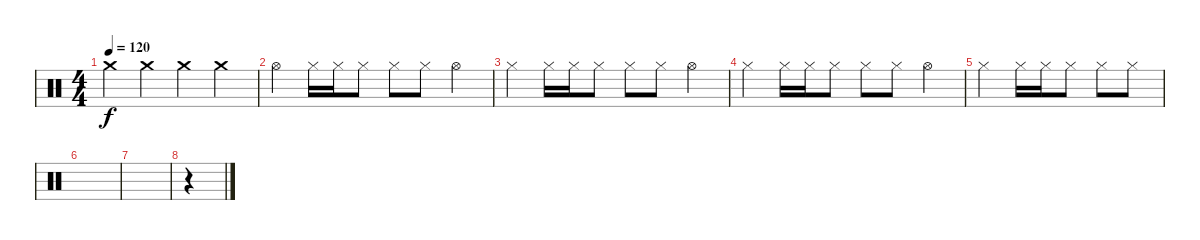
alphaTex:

\track "" {instrument percussion}
\staff {score}
\articulation defaults
\ts (4 4)
\tempo 120
\clef neutral
\ks c "Crash medium (hit)".4{dy f} "Crash medium (hit)".4 "Crash medium (hit)".4 "Crash medium (hit)".4
|
"Hi-Hat (open)".4 "Hi-Hat (closed)".16 "Hi-Hat (closed)".16 "Hi-Hat (closed)".8 "Hi-Hat (closed)".8 "Hi-Hat (closed)".8 "Hi-Hat (open)".4 |
"Hi-Hat (closed)".4 "Hi-Hat (closed)".16 "Hi-Hat (closed)".16 "Hi-Hat (closed)".8 "Hi-Hat (closed)".8 "Hi-Hat (closed)".8 "Hi-Hat (open)".4 |
"Hi-Hat (closed)".4 "Hi-Hat (closed)".16 "Hi-Hat (closed)".16 "Hi-Hat (closed)".8 "Hi-Hat (closed)".8 "Hi-Hat (closed)".8 "Hi-Hat (open)".4 |
"Hi-Hat (closed)".4 "Hi-Hat (closed)".16 "Hi-Hat (closed)".16 "Hi-Hat (closed)".8 "Hi-Hat (closed)".8 "Hi-Hat (closed)".8 |
|
|
r.4
